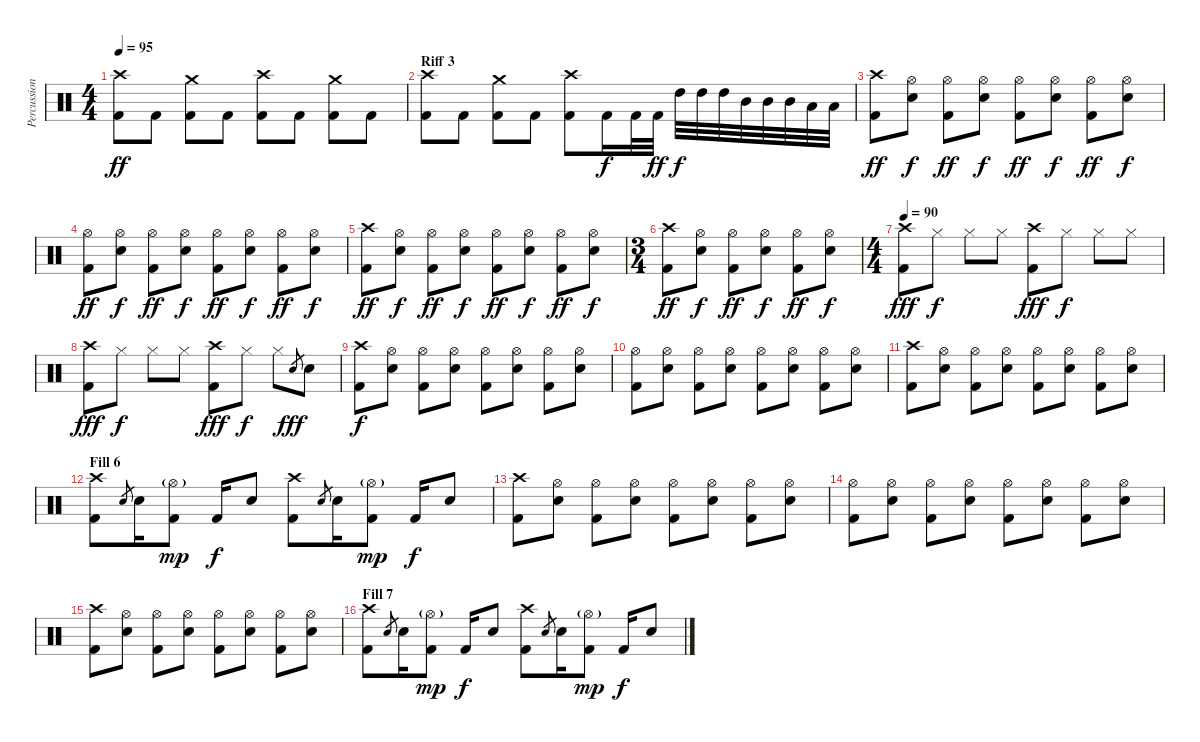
\track ("Percussion" "Percussion") {instrument percussion}
\staff {score}
\articulation defaults
\ts (4 4)
\tempo 95
\clef neutral
\ks c
("Crash high (hit)" "Kick (hit) 2").8{dy ff} "Kick (hit) 2".8 ("Crash medium (hit)" "Kick (hit) 2").8 "Kick (hit) 2".8 ("Crash high (hit)" "Kick (hit) 2").8 "Kick (hit) 2".8 ("Crash medium (hit)" "Kick (hit) 2").8 "Kick (hit) 2".8 |
\section ("" "Riff 3")
("Crash high (hit)" "Kick (hit) 2").8 "Kick (hit) 2".8 ("Crash medium (hit)" "Kick (hit) 2").8 "Kick (hit) 2".8 ("Crash high (hit)" "Kick (hit) 2").8 "Kick (hit) 2".16{dy f} "Kick (hit) 2".32 "Kick (hit) 2".32{dy ff} "High Tom (hit)".32{dy f} "High Tom (hit)".32 "High Tom (hit)".32 "Mid Tom (hit)".32 "Mid Tom (hit)".32 "Mid Tom (hit)".32 "Low Tom (hit)".32 "Low Tom (hit)".32 |
("Crash high (hit)" "Kick (hit) 2").8{dy ff} ("Hi-Hat (open)" "Electric Snare (hit)").8{dy f} ("Hi-Hat (open)" "Kick (hit) 2").8{dy ff} ("Hi-Hat (open)" "Electric Snare (hit)").8{dy f} ("Hi-Hat (open)" "Kick (hit) 2").8{dy ff} ("Hi-Hat (open)" "Electric Snare (hit)").8{dy f} ("Hi-Hat (open)" "Kick (hit) 2").8{dy ff} ("Hi-Hat (open)" "Electric Snare (hit)").8{dy f} |
("Hi-Hat (open)" "Kick (hit) 2").8{dy ff} ("Hi-Hat (open)" "Electric Snare (hit)").8{dy f} ("Hi-Hat (open)" "Kick (hit) 2").8{dy ff} ("Hi-Hat (open)" "Electric Snare (hit)").8{dy f} ("Hi-Hat (open)" "Kick (hit) 2").8{dy ff} ("Hi-Hat (open)" "Electric Snare (hit)").8{dy f} ("Hi-Hat (open)" "Kick (hit) 2").8{dy ff} ("Hi-Hat (open)" "Electric Snare (hit)").8{dy f} |
("Crash high (hit)" "Kick (hit) 2").8{dy ff} ("Hi-Hat (open)" "Electric Snare (hit)").8{dy f} ("Hi-Hat (open)" "Kick (hit) 2").8{dy ff} ("Hi-Hat (open)" "Electric Snare (hit)").8{dy f} ("Hi-Hat (open)" "Kick (hit) 2").8{dy ff} ("Hi-Hat (open)" "Electric Snare (hit)").8{dy f} ("Hi-Hat (open)" "Kick (hit) 2").8{dy ff} ("Hi-Hat (open)" "Electric Snare (hit)").8{dy f} |
\ts (3 4)
("Crash high (hit)" "Kick (hit) 2").8{dy ff} ("Hi-Hat (open)" "Electric Snare (hit)").8{dy f} ("Hi-Hat (open)" "Kick (hit) 2").8{dy ff} ("Hi-Hat (open)" "Electric Snare (hit)").8{dy f} ("Hi-Hat (open)" "Kick (hit) 2").8{dy ff} ("Hi-Hat (open)" "Electric Snare (hit)").8{dy f} |
\ts (4 4)
\tempo 90
("Crash high (hit)" "Kick (hit) 2").8{dy fff} "Hi-Hat (closed)".8{dy f} "Hi-Hat (closed)".8 "Hi-Hat (closed)".8 ("Crash high (hit)" "Kick (hit) 2").8{dy fff} "Hi-Hat (closed)".8{dy f} "Hi-Hat (closed)".8 "Hi-Hat (closed)".8 |
("Crash high (hit)" "Kick (hit) 2").8{dy fff} "Hi-Hat (closed)".8{dy f} "Hi-Hat (closed)".8 "Hi-Hat (closed)".8 ("Crash high (hit)" "Kick (hit) 2").8{dy fff} "Hi-Hat (closed)".8{dy f} "Hi-Hat (closed)".8 "Electric Snare (hit)"{h}.8{gr dy fff} "Electric Snare (hit)".8 |
("Crash high (hit)" "Kick (hit) 2").8{dy f} ("Hi-Hat (open)" "Electric Snare (hit)").8 ("Hi-Hat (open)" "Kick (hit) 2").8 ("Hi-Hat (open)" "Electric Snare (hit)").8 ("Hi-Hat (open)" "Kick (hit) 2").8 ("Hi-Hat (open)" "Electric Snare (hit)").8 ("Hi-Hat (open)" "Kick (hit) 2").8 ("Hi-Hat (open)" "Electric Snare (hit)").8 |
("Hi-Hat (open)" "Kick (hit) 2").8 ("Hi-Hat (open)" "Electric Snare (hit)").8 ("Hi-Hat (open)" "Kick (hit) 2").8 ("Hi-Hat (open)" "Electric Snare (hit)").8 ("Hi-Hat (open)" "Kick (hit) 2").8 ("Hi-Hat (open)" "Electric Snare (hit)").8 ("Hi-Hat (open)" "Kick (hit) 2").8 ("Hi-Hat (open)" "Electric Snare (hit)").8 |
("Crash high (hit)" "Kick (hit) 2").8 ("Hi-Hat (open)" "Electric Snare (hit)").8 ("Hi-Hat (open)" "Kick (hit) 2").8 ("Hi-Hat (open)" "Electric Snare (hit)").8 ("Hi-Hat (open)" "Kick (hit) 2").8 ("Hi-Hat (open)" "Electric Snare (hit)").8 ("Hi-Hat (open)" "Kick (hit) 2").8 ("Hi-Hat (open)" "Electric Snare (hit)").8 |
\section ("" "Fill 6")
("Crash high (hit)" "Kick (hit) 2").8 "Electric Snare (hit)"{h}.8{gr} "Electric Snare (hit)".16 ("Hi-Hat (open)"{g} "Kick (hit) 2").8{dy mp} "Kick (hit) 2".16{dy f} "Electric Snare (hit)".8 ("Crash high (hit)" "Kick (hit) 2").8 "Electric Snare (hit)"{h}.8{gr} "Electric Snare (hit)".16 ("Hi-Hat (open)"{g} "Kick (hit) 2").8{dy mp} "Kick (hit) 2".16{dy f} "Electric Snare (hit)".8 |
("Crash high (hit)" "Kick (hit) 2").8 ("Hi-Hat (open)" "Electric Snare (hit)").8 ("Hi-Hat (open)" "Kick (hit) 2").8 ("Hi-Hat (open)" "Electric Snare (hit)").8 ("Hi-Hat (open)" "Kick (hit) 2").8 ("Hi-Hat (open)" "Electric Snare (hit)").8 ("Hi-Hat (open)" "Kick (hit) 2").8 ("Hi-Hat (open)" "Electric Snare (hit)").8 |
("Hi-Hat (open)" "Kick (hit) 2").8 ("Hi-Hat (open)" "Electric Snare (hit)").8 ("Hi-Hat (open)" "Kick (hit) 2").8 ("Hi-Hat (open)" "Electric Snare (hit)").8 ("Hi-Hat (open)" "Kick (hit) 2").8 ("Hi-Hat (open)" "Electric Snare (hit)").8 ("Hi-Hat (open)" "Kick (hit) 2").8 ("Hi-Hat (open)" "Electric Snare (hit)").8 |
("Crash high (hit)" "Kick (hit) 2").8 ("Hi-Hat (open)" "Electric Snare (hit)").8 ("Hi-Hat (open)" "Kick (hit) 2").8 ("Hi-Hat (open)" "Electric Snare (hit)").8 ("Hi-Hat (open)" "Kick (hit) 2").8 ("Hi-Hat (open)" "Electric Snare (hit)").8 ("Hi-Hat (open)" "Kick (hit) 2").8 ("Hi-Hat (open)" "Electric Snare (hit)").8 |
\section ("" "Fill 7")
("Crash high (hit)" "Kick (hit) 2").8 "Electric Snare (hit)"{h}.8{gr} "Electric Snare (hit)".16 ("Hi-Hat (open)"{g} "Kick (hit) 2").8{dy mp} "Kick (hit) 2".16{dy f} "Electric Snare (hit)".8 ("Crash high (hit)" "Kick (hit) 2").8 "Electric Snare (hit)"{h}.8{gr} "Electric Snare (hit)".16 ("Hi-Hat (open)"{g} "Kick (hit) 2").8{dy mp} "Kick (hit) 2".16{dy f} "Electric Snare (hit)".8
